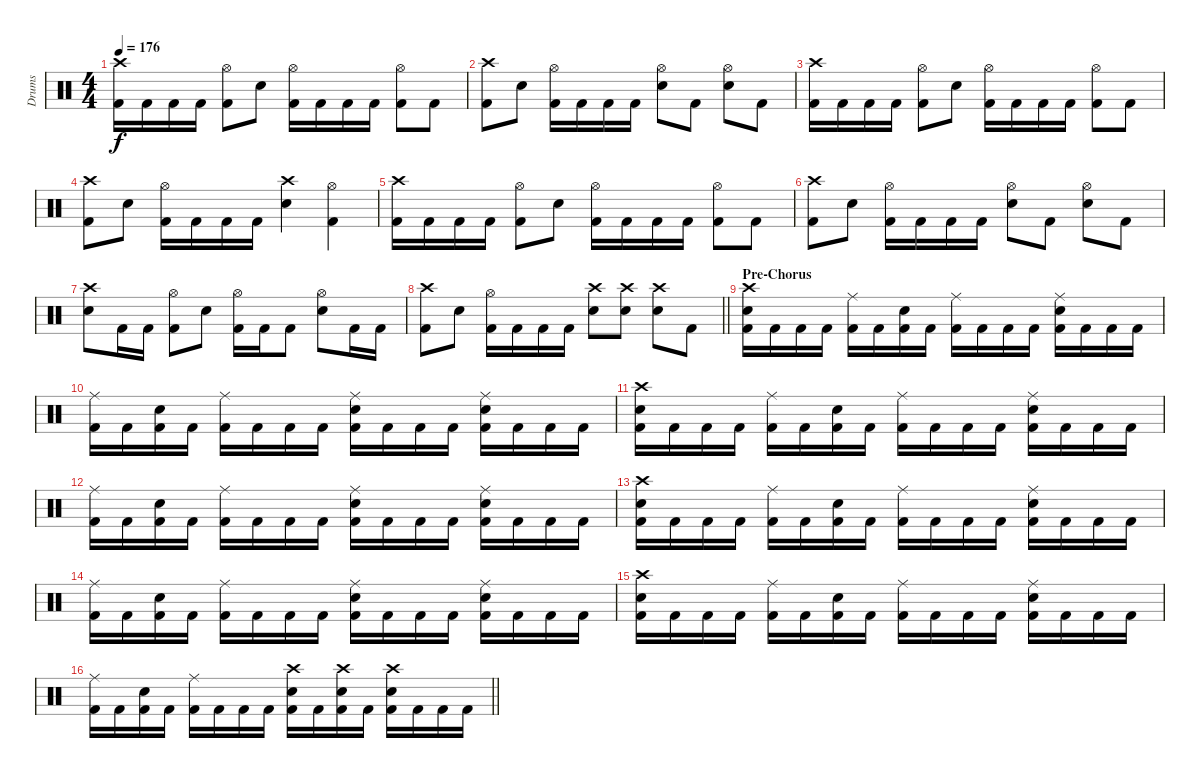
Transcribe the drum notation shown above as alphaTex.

\track ("Drums" "Drums") {instrument percussion}
\staff {score}
\articulation defaults
\ts (4 4)
\tempo 176
\clef neutral
\ks c
("Crash high (hit)" "Kick (hit) 2").16{dy f} "Kick (hit) 2".16 "Kick (hit) 2".16 "Kick (hit) 2".16 ("Hi-Hat (open)" "Kick (hit) 2").8 "Snare (hit) 2".8 ("Hi-Hat (open)" "Kick (hit) 2").16 "Kick (hit) 2".16 "Kick (hit) 2".16 "Kick (hit) 2".16 ("Hi-Hat (open)" "Kick (hit) 2").8 "Kick (hit) 2".8 |
("Crash high (hit)" "Kick (hit) 2").8 "Snare (hit) 2".8 ("Hi-Hat (open)" "Kick (hit) 2").16 "Kick (hit) 2".16 "Kick (hit) 2".16 "Kick (hit) 2".16 ("Hi-Hat (open)" "Snare (hit) 2").8 "Kick (hit) 2".8 ("Hi-Hat (open)" "Snare (hit) 2").8 "Kick (hit) 2".8 |
("Crash high (hit)" "Kick (hit) 2").16 "Kick (hit) 2".16 "Kick (hit) 2".16 "Kick (hit) 2".16 ("Hi-Hat (open)" "Kick (hit) 2").8 "Snare (hit) 2".8 ("Hi-Hat (open)" "Kick (hit) 2").16 "Kick (hit) 2".16 "Kick (hit) 2".16 "Kick (hit) 2".16 ("Hi-Hat (open)" "Kick (hit) 2").8 "Kick (hit) 2".8 |
("Crash high (hit)" "Kick (hit) 2").8 "Snare (hit) 2".8 ("Hi-Hat (open)" "Kick (hit) 2").16 "Kick (hit) 2".16 "Kick (hit) 2".16 "Kick (hit) 2".16 ("Crash high (hit)" "Snare (hit) 2").4 ("Hi-Hat (open)" "Kick (hit) 2").4 |
("Crash high (hit)" "Kick (hit) 2").16 "Kick (hit) 2".16 "Kick (hit) 2".16 "Kick (hit) 2".16 ("Hi-Hat (open)" "Kick (hit) 2").8 "Snare (hit) 2".8 ("Hi-Hat (open)" "Kick (hit) 2").16 "Kick (hit) 2".16 "Kick (hit) 2".16 "Kick (hit) 2".16 ("Hi-Hat (open)" "Kick (hit) 2").8 "Kick (hit) 2".8 |
("Crash high (hit)" "Kick (hit) 2").8 "Snare (hit) 2".8 ("Hi-Hat (open)" "Kick (hit) 2").16 "Kick (hit) 2".16 "Kick (hit) 2".16 "Kick (hit) 2".16 ("Hi-Hat (open)" "Snare (hit) 2").8 "Kick (hit) 2".8 ("Hi-Hat (open)" "Snare (hit) 2").8 "Kick (hit) 2".8 |
("Crash high (hit)" "Snare (hit) 2").8 "Kick (hit) 2".16 "Kick (hit) 2".16 ("Hi-Hat (open)" "Kick (hit) 2").8 "Snare (hit) 2".8 ("Hi-Hat (open)" "Kick (hit) 2").16 "Kick (hit) 2".16 "Kick (hit) 2".8 ("Hi-Hat (open)" "Snare (hit) 2").8 "Kick (hit) 2".16 "Kick (hit) 2".16 |
\barLineRight lightlight
("Crash high (hit)" "Kick (hit) 2").8 "Snare (hit) 2".8 ("Hi-Hat (open)" "Kick (hit) 2").16 "Kick (hit) 2".16 "Kick (hit) 2".16 "Kick (hit) 2".16 ("Crash high (hit)" "Snare (hit) 2").8 ("Crash high (hit)" "Snare (hit) 2").8 ("Crash high (hit)" "Snare (hit) 2").8 "Kick (hit) 2".8 |
\section ("" "Pre-Chorus")
("Crash high (hit)" "Snare (hit) 2" "Kick (hit) 2").16 "Kick (hit) 2".16 "Kick (hit) 2".16 "Kick (hit) 2".16 ("Ride (middle)" "Kick (hit) 2").16 "Kick (hit) 2".16 ("Snare (hit) 2" "Kick (hit) 2").16 "Kick (hit) 2".16 ("Ride (middle)" "Kick (hit) 2").16 "Kick (hit) 2".16 "Kick (hit) 2".16 "Kick (hit) 2".16 ("Ride (middle)" "Snare (hit) 2" "Kick (hit) 2").16 "Kick (hit) 2".16 "Kick (hit) 2".16 "Kick (hit) 2".16 |
("Ride (middle)" "Kick (hit) 2").16 "Kick (hit) 2".16 ("Snare (hit) 2" "Kick (hit) 2").16 "Kick (hit) 2".16 ("Ride (middle)" "Kick (hit) 2").16 "Kick (hit) 2".16 "Kick (hit) 2".16 "Kick (hit) 2".16 ("Ride (middle)" "Snare (hit) 2" "Kick (hit) 2").16 "Kick (hit) 2".16 "Kick (hit) 2".16 "Kick (hit) 2".16 ("Ride (middle)" "Snare (hit) 2" "Kick (hit) 2").16 "Kick (hit) 2".16 "Kick (hit) 2".16 "Kick (hit) 2".16 |
("Crash high (hit)" "Snare (hit) 2" "Kick (hit) 2").16 "Kick (hit) 2".16 "Kick (hit) 2".16 "Kick (hit) 2".16 ("Ride (middle)" "Kick (hit) 2").16 "Kick (hit) 2".16 ("Snare (hit) 2" "Kick (hit) 2").16 "Kick (hit) 2".16 ("Ride (middle)" "Kick (hit) 2").16 "Kick (hit) 2".16 "Kick (hit) 2".16 "Kick (hit) 2".16 ("Ride (middle)" "Snare (hit) 2" "Kick (hit) 2").16 "Kick (hit) 2".16 "Kick (hit) 2".16 "Kick (hit) 2".16 |
("Ride (middle)" "Kick (hit) 2").16 "Kick (hit) 2".16 ("Snare (hit) 2" "Kick (hit) 2").16 "Kick (hit) 2".16 ("Ride (middle)" "Kick (hit) 2").16 "Kick (hit) 2".16 "Kick (hit) 2".16 "Kick (hit) 2".16 ("Ride (middle)" "Snare (hit) 2" "Kick (hit) 2").16 "Kick (hit) 2".16 "Kick (hit) 2".16 "Kick (hit) 2".16 ("Ride (middle)" "Snare (hit) 2" "Kick (hit) 2").16 "Kick (hit) 2".16 "Kick (hit) 2".16 "Kick (hit) 2".16 |
("Crash high (hit)" "Snare (hit) 2" "Kick (hit) 2").16 "Kick (hit) 2".16 "Kick (hit) 2".16 "Kick (hit) 2".16 ("Ride (middle)" "Kick (hit) 2").16 "Kick (hit) 2".16 ("Snare (hit) 2" "Kick (hit) 2").16 "Kick (hit) 2".16 ("Ride (middle)" "Kick (hit) 2").16 "Kick (hit) 2".16 "Kick (hit) 2".16 "Kick (hit) 2".16 ("Ride (middle)" "Snare (hit) 2" "Kick (hit) 2").16 "Kick (hit) 2".16 "Kick (hit) 2".16 "Kick (hit) 2".16 |
("Ride (middle)" "Kick (hit) 2").16 "Kick (hit) 2".16 ("Snare (hit) 2" "Kick (hit) 2").16 "Kick (hit) 2".16 ("Ride (middle)" "Kick (hit) 2").16 "Kick (hit) 2".16 "Kick (hit) 2".16 "Kick (hit) 2".16 ("Ride (middle)" "Snare (hit) 2" "Kick (hit) 2").16 "Kick (hit) 2".16 "Kick (hit) 2".16 "Kick (hit) 2".16 ("Ride (middle)" "Snare (hit) 2" "Kick (hit) 2").16 "Kick (hit) 2".16 "Kick (hit) 2".16 "Kick (hit) 2".16 |
("Crash high (hit)" "Snare (hit) 2" "Kick (hit) 2").16 "Kick (hit) 2".16 "Kick (hit) 2".16 "Kick (hit) 2".16 ("Ride (middle)" "Kick (hit) 2").16 "Kick (hit) 2".16 ("Snare (hit) 2" "Kick (hit) 2").16 "Kick (hit) 2".16 ("Ride (middle)" "Kick (hit) 2").16 "Kick (hit) 2".16 "Kick (hit) 2".16 "Kick (hit) 2".16 ("Ride (middle)" "Snare (hit) 2" "Kick (hit) 2").16 "Kick (hit) 2".16 "Kick (hit) 2".16 "Kick (hit) 2".16 |
\barLineRight lightlight
("Ride (middle)" "Kick (hit) 2").16 "Kick (hit) 2".16 ("Snare (hit) 2" "Kick (hit) 2").16 "Kick (hit) 2".16 ("Ride (middle)" "Kick (hit) 2").16 "Kick (hit) 2".16 "Kick (hit) 2".16 "Kick (hit) 2".16 ("Crash high (hit)" "Snare (hit) 2" "Kick (hit) 2").16 "Kick (hit) 2".16 ("Crash high (hit)" "Snare (hit) 2" "Kick (hit) 2").16 "Kick (hit) 2".16 ("Crash high (hit)" "Snare (hit) 2" "Kick (hit) 2").16 "Kick (hit) 2".16 "Kick (hit) 2".16 "Kick (hit) 2".16
